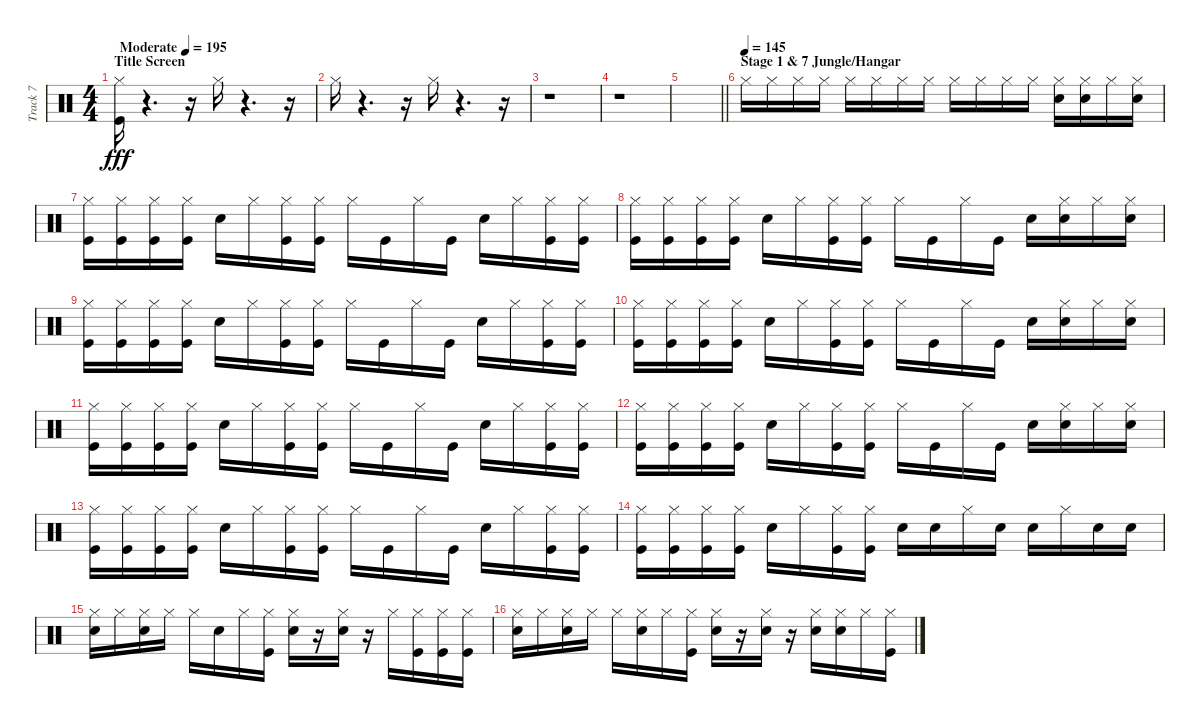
\track ("Track 7" "Track 7") {instrument percussion}
\staff {score}
\articulation defaults
\ts (4 4)
\section ("" "Title Screen")
\tempo (195 "Moderate")
\clef neutral
\ks c
("Kick (hit)" "Hi-Hat (closed)").16{dy fff} r.4{d} r.16 "Hi-Hat (closed)".16 r.4{d} r.16 |
"Hi-Hat (closed)".16 r.4{d} r.16 "Hi-Hat (closed)".16 r.4{d} r.16 |
r.1 |
r.1 |
\barLineRight lightlight
|
\section ("" "Stage 1 & 7 Jungle/Hangar")
\tempo (145)
"Hi-Hat (closed)".16 "Hi-Hat (closed)".16 "Hi-Hat (closed)".16 "Hi-Hat (closed)".16 "Hi-Hat (closed)".16 "Hi-Hat (closed)".16 "Hi-Hat (closed)".16 "Hi-Hat (closed)".16 "Hi-Hat (closed)".16 "Hi-Hat (closed)".16 "Hi-Hat (closed)".16 "Hi-Hat (closed)".16 ("Snare (hit) 2" "Hi-Hat (closed)").16 ("Snare (hit) 2" "Hi-Hat (closed)").16 "Hi-Hat (closed)".16 ("Snare (hit) 2" "Hi-Hat (closed)").16 |
("Kick (hit)" "Hi-Hat (closed)").16 ("Kick (hit)" "Hi-Hat (closed)").16 ("Kick (hit)" "Hi-Hat (closed)").16 ("Kick (hit)" "Hi-Hat (closed)").16 "Snare (hit) 2".16 "Hi-Hat (closed)".16 ("Kick (hit)" "Hi-Hat (closed)").16 ("Kick (hit)" "Hi-Hat (closed)").16 "Hi-Hat (closed)".16 "Kick (hit)".16 "Hi-Hat (closed)".16 "Kick (hit)".16 "Snare (hit) 2".16 "Hi-Hat (closed)".16 ("Kick (hit)" "Hi-Hat (closed)").16 ("Kick (hit)" "Hi-Hat (closed)").16 |
("Kick (hit)" "Hi-Hat (closed)").16 ("Kick (hit)" "Hi-Hat (closed)").16 ("Kick (hit)" "Hi-Hat (closed)").16 ("Kick (hit)" "Hi-Hat (closed)").16 "Snare (hit) 2".16 "Hi-Hat (closed)".16 ("Kick (hit)" "Hi-Hat (closed)").16 ("Kick (hit)" "Hi-Hat (closed)").16 "Hi-Hat (closed)".16 "Kick (hit)".16 "Hi-Hat (closed)".16 "Kick (hit)".16 "Snare (hit) 2".16 ("Snare (hit) 2" "Hi-Hat (closed)").16 "Hi-Hat (closed)".16 ("Snare (hit) 2" "Hi-Hat (closed)").16 |
("Kick (hit)" "Hi-Hat (closed)").16 ("Kick (hit)" "Hi-Hat (closed)").16 ("Kick (hit)" "Hi-Hat (closed)").16 ("Kick (hit)" "Hi-Hat (closed)").16 "Snare (hit) 2".16 "Hi-Hat (closed)".16 ("Kick (hit)" "Hi-Hat (closed)").16 ("Kick (hit)" "Hi-Hat (closed)").16 "Hi-Hat (closed)".16 "Kick (hit)".16 "Hi-Hat (closed)".16 "Kick (hit)".16 "Snare (hit) 2".16 "Hi-Hat (closed)".16 ("Kick (hit)" "Hi-Hat (closed)").16 ("Kick (hit)" "Hi-Hat (closed)").16 |
("Kick (hit)" "Hi-Hat (closed)").16 ("Kick (hit)" "Hi-Hat (closed)").16 ("Kick (hit)" "Hi-Hat (closed)").16 ("Kick (hit)" "Hi-Hat (closed)").16 "Snare (hit) 2".16 "Hi-Hat (closed)".16 ("Kick (hit)" "Hi-Hat (closed)").16 ("Kick (hit)" "Hi-Hat (closed)").16 "Hi-Hat (closed)".16 "Kick (hit)".16 "Hi-Hat (closed)".16 "Kick (hit)".16 "Snare (hit) 2".16 ("Snare (hit) 2" "Hi-Hat (closed)").16 "Hi-Hat (closed)".16 ("Snare (hit) 2" "Hi-Hat (closed)").16 |
("Kick (hit)" "Hi-Hat (closed)").16 ("Kick (hit)" "Hi-Hat (closed)").16 ("Kick (hit)" "Hi-Hat (closed)").16 ("Kick (hit)" "Hi-Hat (closed)").16 "Snare (hit) 2".16 "Hi-Hat (closed)".16 ("Kick (hit)" "Hi-Hat (closed)").16 ("Kick (hit)" "Hi-Hat (closed)").16 "Hi-Hat (closed)".16 "Kick (hit)".16 "Hi-Hat (closed)".16 "Kick (hit)".16 "Snare (hit) 2".16 "Hi-Hat (closed)".16 ("Kick (hit)" "Hi-Hat (closed)").16 ("Kick (hit)" "Hi-Hat (closed)").16 |
("Kick (hit)" "Hi-Hat (closed)").16 ("Kick (hit)" "Hi-Hat (closed)").16 ("Kick (hit)" "Hi-Hat (closed)").16 ("Kick (hit)" "Hi-Hat (closed)").16 "Snare (hit) 2".16 "Hi-Hat (closed)".16 ("Kick (hit)" "Hi-Hat (closed)").16 ("Kick (hit)" "Hi-Hat (closed)").16 "Hi-Hat (closed)".16 "Kick (hit)".16 "Hi-Hat (closed)".16 "Kick (hit)".16 "Snare (hit) 2".16 ("Snare (hit) 2" "Hi-Hat (closed)").16 "Hi-Hat (closed)".16 ("Snare (hit) 2" "Hi-Hat (closed)").16 |
("Kick (hit)" "Hi-Hat (closed)").16 ("Kick (hit)" "Hi-Hat (closed)").16 ("Kick (hit)" "Hi-Hat (closed)").16 ("Kick (hit)" "Hi-Hat (closed)").16 "Snare (hit) 2".16 "Hi-Hat (closed)".16 ("Kick (hit)" "Hi-Hat (closed)").16 ("Kick (hit)" "Hi-Hat (closed)").16 "Hi-Hat (closed)".16 "Kick (hit)".16 "Hi-Hat (closed)".16 "Kick (hit)".16 "Snare (hit) 2".16 "Hi-Hat (closed)".16 ("Kick (hit)" "Hi-Hat (closed)").16 ("Kick (hit)" "Hi-Hat (closed)").16 |
("Kick (hit)" "Hi-Hat (closed)").16 ("Kick (hit)" "Hi-Hat (closed)").16 ("Kick (hit)" "Hi-Hat (closed)").16 ("Kick (hit)" "Hi-Hat (closed)").16 "Snare (hit) 2".16 "Hi-Hat (closed)".16 ("Kick (hit)" "Hi-Hat (closed)").16 ("Kick (hit)" "Hi-Hat (closed)").16 "Snare (hit) 2".16 "Snare (hit) 2".16 "Hi-Hat (closed)".16 "Snare (hit) 2".16 "Snare (hit) 2".16 "Hi-Hat (closed)".16 "Snare (hit) 2".16 "Snare (hit) 2".16 |
("Snare (hit) 2" "Hi-Hat (closed)").16 "Hi-Hat (closed)".16 ("Snare (hit) 2" "Hi-Hat (closed)").16 "Hi-Hat (closed)".16 "Hi-Hat (closed)".16 "Snare (hit) 2".16 "Hi-Hat (closed)".16 ("Kick (hit)" "Hi-Hat (closed)").16 ("Snare (hit) 2" "Hi-Hat (closed)").16 r.16 ("Snare (hit) 2" "Hi-Hat (closed)").16 r.16 "Hi-Hat (closed)".16 ("Kick (hit)" "Hi-Hat (closed)").16 ("Kick (hit)" "Hi-Hat (closed)").16 ("Kick (hit)" "Hi-Hat (closed)").16 |
("Snare (hit) 2" "Hi-Hat (closed)").16 "Hi-Hat (closed)".16 ("Snare (hit) 2" "Hi-Hat (closed)").16 "Hi-Hat (closed)".16 "Hi-Hat (closed)".16 ("Snare (hit) 2" "Hi-Hat (closed)").16 "Hi-Hat (closed)".16 ("Kick (hit)" "Hi-Hat (closed)").16 ("Snare (hit) 2" "Hi-Hat (closed)").16 r.16 ("Snare (hit) 2" "Hi-Hat (closed)").16 r.16 ("Snare (hit) 2" "Hi-Hat (closed)").16 ("Snare (hit) 2" "Hi-Hat (closed)").16 "Hi-Hat (closed)".16 ("Kick (hit)" "Hi-Hat (closed)").16
